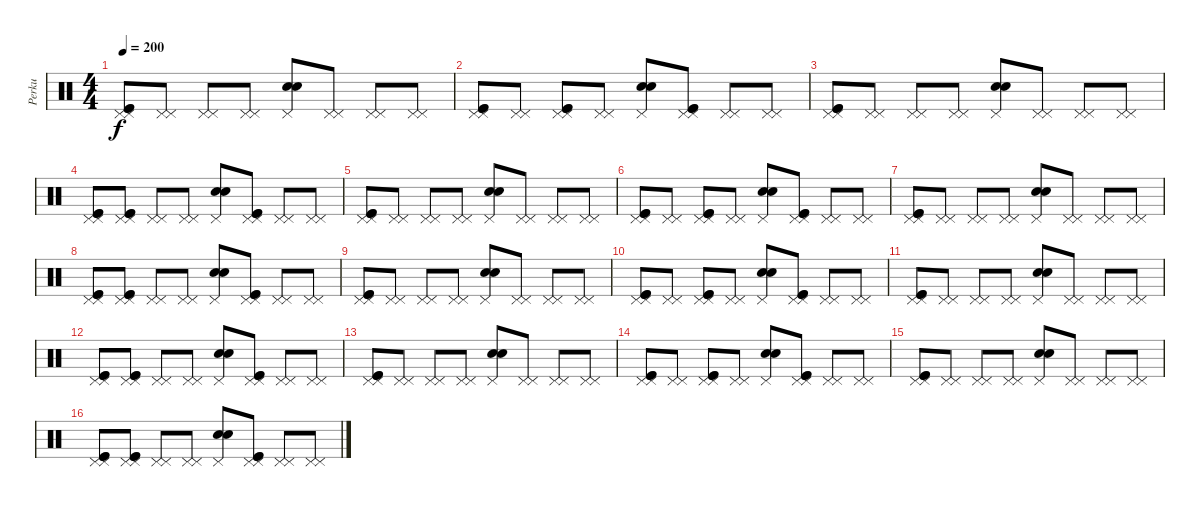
\track ("Perku" "Perku") {instrument percussion}
\staff {score}
\articulation defaults
\ts (4 4)
\tempo 200
\clef neutral
\ks c
("Pedal Hi-Hat (hit)" "Pedal Hi-Hat (hit)" "Kick (hit)" "Kick (hit)").8{dy f} ("Pedal Hi-Hat (hit)" "Pedal Hi-Hat (hit)").8 ("Pedal Hi-Hat (hit)" "Pedal Hi-Hat (hit)").8 ("Pedal Hi-Hat (hit)" "Pedal Hi-Hat (hit)").8 ("Pedal Hi-Hat (hit)" "Electric Snare (hit)" "Electric Snare (hit)").8 ("Pedal Hi-Hat (hit)" "Pedal Hi-Hat (hit)").8 ("Pedal Hi-Hat (hit)" "Pedal Hi-Hat (hit)").8 ("Pedal Hi-Hat (hit)" "Pedal Hi-Hat (hit)").8 |
("Pedal Hi-Hat (hit)" "Pedal Hi-Hat (hit)" "Kick (hit)" "Kick (hit)").8 ("Pedal Hi-Hat (hit)" "Pedal Hi-Hat (hit)").8 ("Pedal Hi-Hat (hit)" "Pedal Hi-Hat (hit)" "Kick (hit)" "Kick (hit)").8 ("Pedal Hi-Hat (hit)" "Pedal Hi-Hat (hit)").8 ("Pedal Hi-Hat (hit)" "Electric Snare (hit)" "Electric Snare (hit)").8 ("Pedal Hi-Hat (hit)" "Pedal Hi-Hat (hit)" "Kick (hit)" "Kick (hit)").8 ("Pedal Hi-Hat (hit)" "Pedal Hi-Hat (hit)").8 ("Pedal Hi-Hat (hit)" "Pedal Hi-Hat (hit)").8 |
("Pedal Hi-Hat (hit)" "Pedal Hi-Hat (hit)" "Kick (hit)" "Kick (hit)").8 ("Pedal Hi-Hat (hit)" "Pedal Hi-Hat (hit)").8 ("Pedal Hi-Hat (hit)" "Pedal Hi-Hat (hit)").8 ("Pedal Hi-Hat (hit)" "Pedal Hi-Hat (hit)").8 ("Pedal Hi-Hat (hit)" "Electric Snare (hit)" "Electric Snare (hit)").8 ("Pedal Hi-Hat (hit)" "Pedal Hi-Hat (hit)").8 ("Pedal Hi-Hat (hit)" "Pedal Hi-Hat (hit)").8 ("Pedal Hi-Hat (hit)" "Pedal Hi-Hat (hit)").8 |
("Pedal Hi-Hat (hit)" "Pedal Hi-Hat (hit)" "Kick (hit)" "Kick (hit)").8 ("Pedal Hi-Hat (hit)" "Pedal Hi-Hat (hit)" "Kick (hit)" "Kick (hit)").8 ("Pedal Hi-Hat (hit)" "Pedal Hi-Hat (hit)").8 ("Pedal Hi-Hat (hit)" "Pedal Hi-Hat (hit)").8 ("Pedal Hi-Hat (hit)" "Electric Snare (hit)" "Electric Snare (hit)").8 ("Pedal Hi-Hat (hit)" "Pedal Hi-Hat (hit)" "Kick (hit)" "Kick (hit)").8 ("Pedal Hi-Hat (hit)" "Pedal Hi-Hat (hit)").8 ("Pedal Hi-Hat (hit)" "Pedal Hi-Hat (hit)").8 |
("Pedal Hi-Hat (hit)" "Pedal Hi-Hat (hit)" "Kick (hit)" "Kick (hit)").8 ("Pedal Hi-Hat (hit)" "Pedal Hi-Hat (hit)").8 ("Pedal Hi-Hat (hit)" "Pedal Hi-Hat (hit)").8 ("Pedal Hi-Hat (hit)" "Pedal Hi-Hat (hit)").8 ("Pedal Hi-Hat (hit)" "Electric Snare (hit)" "Electric Snare (hit)").8 ("Pedal Hi-Hat (hit)" "Pedal Hi-Hat (hit)").8 ("Pedal Hi-Hat (hit)" "Pedal Hi-Hat (hit)").8 ("Pedal Hi-Hat (hit)" "Pedal Hi-Hat (hit)").8 |
("Pedal Hi-Hat (hit)" "Pedal Hi-Hat (hit)" "Kick (hit)" "Kick (hit)").8 ("Pedal Hi-Hat (hit)" "Pedal Hi-Hat (hit)").8 ("Pedal Hi-Hat (hit)" "Pedal Hi-Hat (hit)" "Kick (hit)" "Kick (hit)").8 ("Pedal Hi-Hat (hit)" "Pedal Hi-Hat (hit)").8 ("Pedal Hi-Hat (hit)" "Electric Snare (hit)" "Electric Snare (hit)").8 ("Pedal Hi-Hat (hit)" "Pedal Hi-Hat (hit)" "Kick (hit)" "Kick (hit)").8 ("Pedal Hi-Hat (hit)" "Pedal Hi-Hat (hit)").8 ("Pedal Hi-Hat (hit)" "Pedal Hi-Hat (hit)").8 |
("Pedal Hi-Hat (hit)" "Pedal Hi-Hat (hit)" "Kick (hit)" "Kick (hit)").8 ("Pedal Hi-Hat (hit)" "Pedal Hi-Hat (hit)").8 ("Pedal Hi-Hat (hit)" "Pedal Hi-Hat (hit)").8 ("Pedal Hi-Hat (hit)" "Pedal Hi-Hat (hit)").8 ("Pedal Hi-Hat (hit)" "Electric Snare (hit)" "Electric Snare (hit)").8 ("Pedal Hi-Hat (hit)" "Pedal Hi-Hat (hit)").8 ("Pedal Hi-Hat (hit)" "Pedal Hi-Hat (hit)").8 ("Pedal Hi-Hat (hit)" "Pedal Hi-Hat (hit)").8 |
("Pedal Hi-Hat (hit)" "Pedal Hi-Hat (hit)" "Kick (hit)" "Kick (hit)").8 ("Pedal Hi-Hat (hit)" "Pedal Hi-Hat (hit)" "Kick (hit)" "Kick (hit)").8 ("Pedal Hi-Hat (hit)" "Pedal Hi-Hat (hit)").8 ("Pedal Hi-Hat (hit)" "Pedal Hi-Hat (hit)").8 ("Pedal Hi-Hat (hit)" "Electric Snare (hit)" "Electric Snare (hit)").8 ("Pedal Hi-Hat (hit)" "Pedal Hi-Hat (hit)" "Kick (hit)" "Kick (hit)").8 ("Pedal Hi-Hat (hit)" "Pedal Hi-Hat (hit)").8 ("Pedal Hi-Hat (hit)" "Pedal Hi-Hat (hit)").8 |
("Pedal Hi-Hat (hit)" "Pedal Hi-Hat (hit)" "Kick (hit)" "Kick (hit)").8 ("Pedal Hi-Hat (hit)" "Pedal Hi-Hat (hit)").8 ("Pedal Hi-Hat (hit)" "Pedal Hi-Hat (hit)").8 ("Pedal Hi-Hat (hit)" "Pedal Hi-Hat (hit)").8 ("Pedal Hi-Hat (hit)" "Electric Snare (hit)" "Electric Snare (hit)").8 ("Pedal Hi-Hat (hit)" "Pedal Hi-Hat (hit)").8 ("Pedal Hi-Hat (hit)" "Pedal Hi-Hat (hit)").8 ("Pedal Hi-Hat (hit)" "Pedal Hi-Hat (hit)").8 |
("Pedal Hi-Hat (hit)" "Pedal Hi-Hat (hit)" "Kick (hit)" "Kick (hit)").8 ("Pedal Hi-Hat (hit)" "Pedal Hi-Hat (hit)").8 ("Pedal Hi-Hat (hit)" "Pedal Hi-Hat (hit)" "Kick (hit)" "Kick (hit)").8 ("Pedal Hi-Hat (hit)" "Pedal Hi-Hat (hit)").8 ("Pedal Hi-Hat (hit)" "Electric Snare (hit)" "Electric Snare (hit)").8 ("Pedal Hi-Hat (hit)" "Pedal Hi-Hat (hit)" "Kick (hit)" "Kick (hit)").8 ("Pedal Hi-Hat (hit)" "Pedal Hi-Hat (hit)").8 ("Pedal Hi-Hat (hit)" "Pedal Hi-Hat (hit)").8 |
("Pedal Hi-Hat (hit)" "Pedal Hi-Hat (hit)" "Kick (hit)" "Kick (hit)").8 ("Pedal Hi-Hat (hit)" "Pedal Hi-Hat (hit)").8 ("Pedal Hi-Hat (hit)" "Pedal Hi-Hat (hit)").8 ("Pedal Hi-Hat (hit)" "Pedal Hi-Hat (hit)").8 ("Pedal Hi-Hat (hit)" "Electric Snare (hit)" "Electric Snare (hit)").8 ("Pedal Hi-Hat (hit)" "Pedal Hi-Hat (hit)").8 ("Pedal Hi-Hat (hit)" "Pedal Hi-Hat (hit)").8 ("Pedal Hi-Hat (hit)" "Pedal Hi-Hat (hit)").8 |
("Pedal Hi-Hat (hit)" "Pedal Hi-Hat (hit)" "Kick (hit)" "Kick (hit)").8 ("Pedal Hi-Hat (hit)" "Pedal Hi-Hat (hit)" "Kick (hit)" "Kick (hit)").8 ("Pedal Hi-Hat (hit)" "Pedal Hi-Hat (hit)").8 ("Pedal Hi-Hat (hit)" "Pedal Hi-Hat (hit)").8 ("Pedal Hi-Hat (hit)" "Electric Snare (hit)" "Electric Snare (hit)").8 ("Pedal Hi-Hat (hit)" "Pedal Hi-Hat (hit)" "Kick (hit)" "Kick (hit)").8 ("Pedal Hi-Hat (hit)" "Pedal Hi-Hat (hit)").8 ("Pedal Hi-Hat (hit)" "Pedal Hi-Hat (hit)").8 |
("Pedal Hi-Hat (hit)" "Pedal Hi-Hat (hit)" "Kick (hit)" "Kick (hit)").8 ("Pedal Hi-Hat (hit)" "Pedal Hi-Hat (hit)").8 ("Pedal Hi-Hat (hit)" "Pedal Hi-Hat (hit)").8 ("Pedal Hi-Hat (hit)" "Pedal Hi-Hat (hit)").8 ("Pedal Hi-Hat (hit)" "Electric Snare (hit)" "Electric Snare (hit)").8 ("Pedal Hi-Hat (hit)" "Pedal Hi-Hat (hit)").8 ("Pedal Hi-Hat (hit)" "Pedal Hi-Hat (hit)").8 ("Pedal Hi-Hat (hit)" "Pedal Hi-Hat (hit)").8 |
("Pedal Hi-Hat (hit)" "Pedal Hi-Hat (hit)" "Kick (hit)" "Kick (hit)").8 ("Pedal Hi-Hat (hit)" "Pedal Hi-Hat (hit)").8 ("Pedal Hi-Hat (hit)" "Pedal Hi-Hat (hit)" "Kick (hit)" "Kick (hit)").8 ("Pedal Hi-Hat (hit)" "Pedal Hi-Hat (hit)").8 ("Pedal Hi-Hat (hit)" "Electric Snare (hit)" "Electric Snare (hit)").8 ("Pedal Hi-Hat (hit)" "Pedal Hi-Hat (hit)" "Kick (hit)" "Kick (hit)").8 ("Pedal Hi-Hat (hit)" "Pedal Hi-Hat (hit)").8 ("Pedal Hi-Hat (hit)" "Pedal Hi-Hat (hit)").8 |
("Pedal Hi-Hat (hit)" "Pedal Hi-Hat (hit)" "Kick (hit)" "Kick (hit)").8 ("Pedal Hi-Hat (hit)" "Pedal Hi-Hat (hit)").8 ("Pedal Hi-Hat (hit)" "Pedal Hi-Hat (hit)").8 ("Pedal Hi-Hat (hit)" "Pedal Hi-Hat (hit)").8 ("Pedal Hi-Hat (hit)" "Electric Snare (hit)" "Electric Snare (hit)").8 ("Pedal Hi-Hat (hit)" "Pedal Hi-Hat (hit)").8 ("Pedal Hi-Hat (hit)" "Pedal Hi-Hat (hit)").8 ("Pedal Hi-Hat (hit)" "Pedal Hi-Hat (hit)").8 |
("Pedal Hi-Hat (hit)" "Pedal Hi-Hat (hit)" "Kick (hit)" "Kick (hit)").8 ("Pedal Hi-Hat (hit)" "Pedal Hi-Hat (hit)" "Kick (hit)" "Kick (hit)").8 ("Pedal Hi-Hat (hit)" "Pedal Hi-Hat (hit)").8 ("Pedal Hi-Hat (hit)" "Pedal Hi-Hat (hit)").8 ("Pedal Hi-Hat (hit)" "Electric Snare (hit)" "Electric Snare (hit)").8 ("Pedal Hi-Hat (hit)" "Pedal Hi-Hat (hit)" "Kick (hit)" "Kick (hit)").8 ("Pedal Hi-Hat (hit)" "Pedal Hi-Hat (hit)").8 ("Pedal Hi-Hat (hit)" "Pedal Hi-Hat (hit)").8
